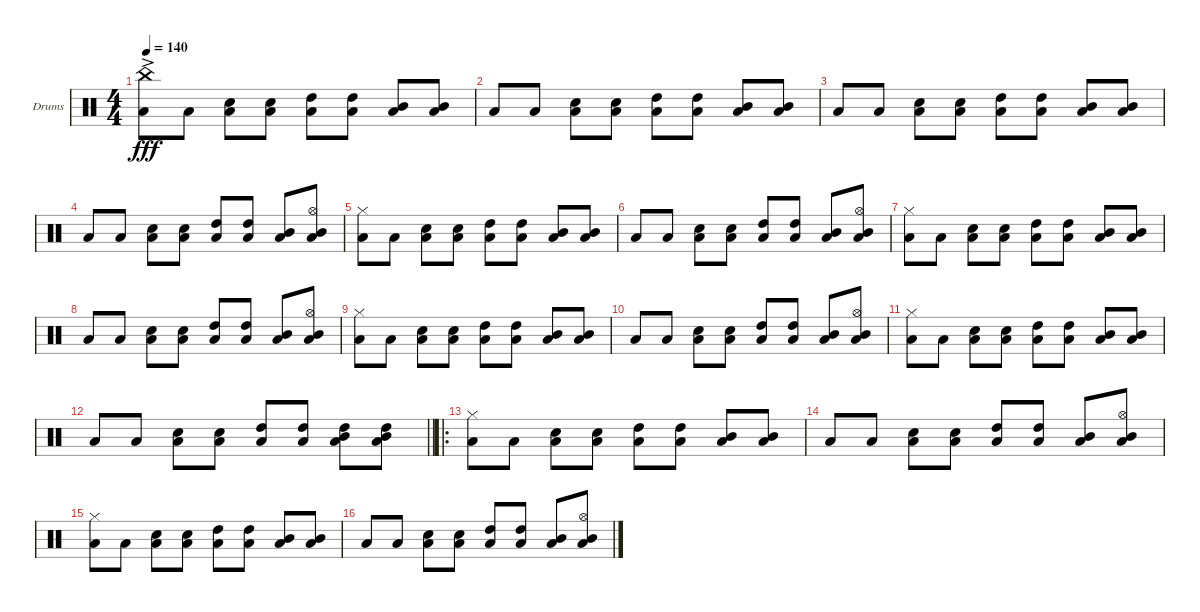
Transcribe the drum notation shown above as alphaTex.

\defaultSystemsLayout 4
\bracketExtendMode groupsimilarinstruments
\firstSystemTrackNameOrientation horizontal
\otherSystemsTrackNameOrientation horizontal
\track ("Drumkit" "Drums") {instrument percussion}
\staff {score}
\articulation defaults
\ts (4 4)
\tempo 140
\clef neutral
\scale
0.472222
\ks c
("Low Tom (hit)" "China (hit)"{ac}).8{dy fff} "Low Tom (hit)".8 ("Low Tom (hit)" "Snare (hit) 2").8 ("Low Tom (hit)" "Snare (hit) 2").8 ("Low Tom (hit)" "High Tom (hit)").8 ("Low Tom (hit)" "High Tom (hit)").8 ("Low Tom (hit)" "Mid Tom (hit)").8 ("Low Tom (hit)" "Mid Tom (hit)").8 |
\scale
0.263889 "Low Tom (hit)".8 "Low Tom (hit)".8 ("Low Tom (hit)" "Snare (hit) 2").8 ("Low Tom (hit)" "Snare (hit) 2").8 ("Low Tom (hit)" "High Tom (hit)").8 ("Low Tom (hit)" "High Tom (hit)").8 ("Low Tom (hit)" "Mid Tom (hit)").8 ("Low Tom (hit)" "Mid Tom (hit)").8 |
\scale
0.263889 "Low Tom (hit)".8 "Low Tom (hit)".8 ("Low Tom (hit)" "Snare (hit) 2").8 ("Low Tom (hit)" "Snare (hit) 2").8 ("Low Tom (hit)" "High Tom (hit)").8 ("Low Tom (hit)" "High Tom (hit)").8 ("Low Tom (hit)" "Mid Tom (hit)").8 ("Low Tom (hit)" "Mid Tom (hit)").8 |
\scale
0.333333 "Low Tom (hit)".8 "Low Tom (hit)".8 ("Low Tom (hit)" "Snare (hit) 2").8 ("Low Tom (hit)" "Snare (hit) 2").8 ("Low Tom (hit)" "High Tom (hit)").8 ("Low Tom (hit)" "High Tom (hit)").8 ("Low Tom (hit)" "Mid Tom (hit)").8{beam invert} ("Low Tom (hit)" "Mid Tom (hit)" "Hi-Hat (open)").8 |
\scale
0.333333 ("Low Tom (hit)" "Hi-Hat (closed)").8 "Low Tom (hit)".8 ("Low Tom (hit)" "Snare (hit) 2").8 ("Low Tom (hit)" "Snare (hit) 2").8 ("Low Tom (hit)" "High Tom (hit)").8 ("Low Tom (hit)" "High Tom (hit)").8 ("Low Tom (hit)" "Mid Tom (hit)").8 ("Low Tom (hit)" "Mid Tom (hit)").8 |
\scale
0.333333 "Low Tom (hit)".8 "Low Tom (hit)".8 ("Low Tom (hit)" "Snare (hit) 2").8 ("Low Tom (hit)" "Snare (hit) 2").8 ("Low Tom (hit)" "High Tom (hit)").8 ("Low Tom (hit)" "High Tom (hit)").8 ("Low Tom (hit)" "Mid Tom (hit)").8{beam invert} ("Low Tom (hit)" "Mid Tom (hit)" "Hi-Hat (open)").8 |
\scale
0.333333 ("Low Tom (hit)" "Hi-Hat (closed)").8 "Low Tom (hit)".8 ("Low Tom (hit)" "Snare (hit) 2").8 ("Low Tom (hit)" "Snare (hit) 2").8 ("Low Tom (hit)" "High Tom (hit)").8 ("Low Tom (hit)" "High Tom (hit)").8 ("Low Tom (hit)" "Mid Tom (hit)").8 ("Low Tom (hit)" "Mid Tom (hit)").8 |
\scale
0.333333 "Low Tom (hit)".8 "Low Tom (hit)".8 ("Low Tom (hit)" "Snare (hit) 2").8 ("Low Tom (hit)" "Snare (hit) 2").8 ("Low Tom (hit)" "High Tom (hit)").8 ("Low Tom (hit)" "High Tom (hit)").8 ("Low Tom (hit)" "Mid Tom (hit)").8{beam invert} ("Low Tom (hit)" "Mid Tom (hit)" "Hi-Hat (open)").8 |
\scale
0.333333 ("Low Tom (hit)" "Hi-Hat (closed)").8 "Low Tom (hit)".8 ("Low Tom (hit)" "Snare (hit) 2").8 ("Low Tom (hit)" "Snare (hit) 2").8 ("Low Tom (hit)" "High Tom (hit)").8 ("Low Tom (hit)" "High Tom (hit)").8 ("Low Tom (hit)" "Mid Tom (hit)").8 ("Low Tom (hit)" "Mid Tom (hit)").8 |
\scale
0.333333 "Low Tom (hit)".8 "Low Tom (hit)".8 ("Low Tom (hit)" "Snare (hit) 2").8 ("Low Tom (hit)" "Snare (hit) 2").8 ("Low Tom (hit)" "High Tom (hit)").8 ("Low Tom (hit)" "High Tom (hit)").8 ("Low Tom (hit)" "Mid Tom (hit)").8{beam invert} ("Low Tom (hit)" "Mid Tom (hit)" "Hi-Hat (open)").8 |
\scale
0.333333 ("Low Tom (hit)" "Hi-Hat (closed)").8 "Low Tom (hit)".8 ("Low Tom (hit)" "Snare (hit) 2").8 ("Low Tom (hit)" "Snare (hit) 2").8 ("Low Tom (hit)" "High Tom (hit)").8 ("Low Tom (hit)" "High Tom (hit)").8 ("Low Tom (hit)" "Mid Tom (hit)").8 ("Low Tom (hit)" "Mid Tom (hit)").8 |
\scale
0.333333
\barLineRight lightlight "Low Tom (hit)".8 "Low Tom (hit)".8
("Low Tom (hit)" "Snare (hit) 2").8 ("Low Tom (hit)" "Snare (hit) 2").8 ("Low Tom (hit)" "High Tom (hit)").8 ("Low Tom (hit)" "High Tom (hit)").8 ("Low Tom (hit)" "Mid Tom (hit)" "High Tom (hit)").8{beam invert} ("Low Tom (hit)" "Mid Tom (hit)" "High Tom (hit)").8 |
\ro
\scale
0.377049 ("Low Tom (hit)" "Hi-Hat (closed)").8 "Low Tom (hit)".8 ("Low Tom (hit)" "Snare (hit) 2").8 ("Low Tom (hit)" "Snare (hit) 2").8 ("Low Tom (hit)" "High Tom (hit)").8 ("Low Tom (hit)" "High Tom (hit)").8 ("Low Tom (hit)" "Mid Tom (hit)").8 ("Low Tom (hit)" "Mid Tom (hit)").8 |
\scale
0.311475 "Low Tom (hit)".8 "Low Tom (hit)".8 ("Low Tom (hit)" "Snare (hit) 2").8 ("Low Tom (hit)" "Snare (hit) 2").8 ("Low Tom (hit)" "High Tom (hit)").8 ("Low Tom (hit)" "High Tom (hit)").8 ("Low Tom (hit)" "Mid Tom (hit)").8{beam invert} ("Low Tom (hit)" "Mid Tom (hit)" "Hi-Hat (open)").8 |
\scale
0.311475 ("Low Tom (hit)" "Hi-Hat (closed)").8 "Low Tom (hit)".8 ("Low Tom (hit)" "Snare (hit) 2").8 ("Low Tom (hit)" "Snare (hit) 2").8 ("Low Tom (hit)" "High Tom (hit)").8 ("Low Tom (hit)" "High Tom (hit)").8 ("Low Tom (hit)" "Mid Tom (hit)").8 ("Low Tom (hit)" "Mid Tom (hit)").8 |
\scale
0.333333 "Low Tom (hit)".8 "Low Tom (hit)".8 ("Low Tom (hit)" "Snare (hit) 2").8 ("Low Tom (hit)" "Snare (hit) 2").8 ("Low Tom (hit)" "High Tom (hit)").8 ("Low Tom (hit)" "High Tom (hit)").8 ("Low Tom (hit)" "Mid Tom (hit)").8{beam invert} ("Low Tom (hit)" "Mid Tom (hit)" "Hi-Hat (open)").8
